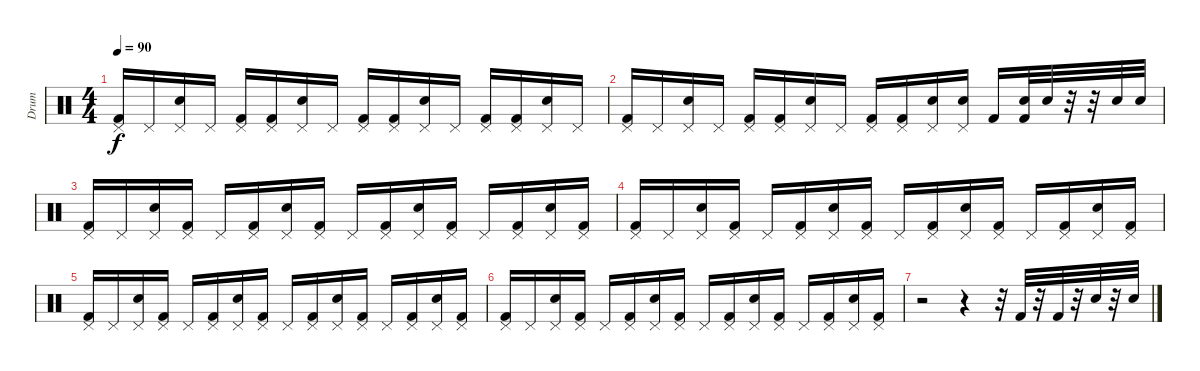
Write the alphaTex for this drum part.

\track ("Drum" "Drum") {instrument percussion}
\staff {score}
\articulation defaults
\ts (4 4)
\tempo 90
\clef neutral
\ks c
("Pedal Hi-Hat (hit)" "Kick (hit) 2").16{dy f} "Pedal Hi-Hat (hit)".16 ("Pedal Hi-Hat (hit)" "Snare (hit) 2").16 "Pedal Hi-Hat (hit)".16 ("Pedal Hi-Hat (hit)" "Kick (hit) 2").16 ("Pedal Hi-Hat (hit)" "Kick (hit) 2").16 ("Pedal Hi-Hat (hit)" "Snare (hit) 2").16 "Pedal Hi-Hat (hit)".16 ("Pedal Hi-Hat (hit)" "Kick (hit) 2").16 ("Pedal Hi-Hat (hit)" "Kick (hit) 2").16 ("Pedal Hi-Hat (hit)" "Snare (hit) 2").16 "Pedal Hi-Hat (hit)".16 ("Pedal Hi-Hat (hit)" "Kick (hit) 2").16 ("Pedal Hi-Hat (hit)" "Kick (hit) 2").16 ("Pedal Hi-Hat (hit)" "Snare (hit) 2").16 "Pedal Hi-Hat (hit)".16 |
("Pedal Hi-Hat (hit)" "Kick (hit) 2").16 "Pedal Hi-Hat (hit)".16 ("Pedal Hi-Hat (hit)" "Snare (hit) 2").16 "Pedal Hi-Hat (hit)".16 ("Pedal Hi-Hat (hit)" "Kick (hit) 2").16 ("Pedal Hi-Hat (hit)" "Kick (hit) 2").16 ("Pedal Hi-Hat (hit)" "Snare (hit) 2").16 "Pedal Hi-Hat (hit)".16 ("Pedal Hi-Hat (hit)" "Kick (hit) 2").16 ("Pedal Hi-Hat (hit)" "Kick (hit) 2").16 ("Pedal Hi-Hat (hit)" "Snare (hit) 2").16 ("Pedal Hi-Hat (hit)" "Snare (hit) 2").16 "Kick (hit) 2".16 ("Snare (hit) 2" "Kick (hit) 2").32 "Snare (hit) 2".32 r.32 r.32 "Snare (hit) 2".32 "Snare (hit) 2".32 |
("Pedal Hi-Hat (hit)" "Kick (hit) 2").16 "Pedal Hi-Hat (hit)".16 ("Pedal Hi-Hat (hit)" "Snare (hit) 2").16 ("Pedal Hi-Hat (hit)" "Kick (hit) 2").16 "Pedal Hi-Hat (hit)".16 ("Pedal Hi-Hat (hit)" "Kick (hit) 2").16 ("Pedal Hi-Hat (hit)" "Snare (hit) 2").16 ("Pedal Hi-Hat (hit)" "Kick (hit) 2").16 "Pedal Hi-Hat (hit)".16 ("Pedal Hi-Hat (hit)" "Kick (hit) 2").16 ("Pedal Hi-Hat (hit)" "Snare (hit) 2").16 ("Pedal Hi-Hat (hit)" "Kick (hit) 2").16 "Pedal Hi-Hat (hit)".16 ("Pedal Hi-Hat (hit)" "Kick (hit) 2").16 ("Pedal Hi-Hat (hit)" "Snare (hit) 2").16 ("Pedal Hi-Hat (hit)" "Kick (hit) 2").16 |
("Pedal Hi-Hat (hit)" "Kick (hit) 2").16 "Pedal Hi-Hat (hit)".16 ("Pedal Hi-Hat (hit)" "Snare (hit) 2").16 ("Pedal Hi-Hat (hit)" "Kick (hit) 2").16 "Pedal Hi-Hat (hit)".16 ("Pedal Hi-Hat (hit)" "Kick (hit) 2").16 ("Pedal Hi-Hat (hit)" "Snare (hit) 2").16 ("Pedal Hi-Hat (hit)" "Kick (hit) 2").16 "Pedal Hi-Hat (hit)".16 ("Pedal Hi-Hat (hit)" "Kick (hit) 2").16 ("Pedal Hi-Hat (hit)" "Snare (hit) 2").16 ("Pedal Hi-Hat (hit)" "Kick (hit) 2").16 "Pedal Hi-Hat (hit)".16 ("Pedal Hi-Hat (hit)" "Kick (hit) 2").16 ("Pedal Hi-Hat (hit)" "Snare (hit) 2").16 ("Pedal Hi-Hat (hit)" "Kick (hit) 2").16 |
("Pedal Hi-Hat (hit)" "Kick (hit) 2").16 "Pedal Hi-Hat (hit)".16 ("Pedal Hi-Hat (hit)" "Snare (hit) 2").16 ("Pedal Hi-Hat (hit)" "Kick (hit) 2").16 "Pedal Hi-Hat (hit)".16 ("Pedal Hi-Hat (hit)" "Kick (hit) 2").16 ("Pedal Hi-Hat (hit)" "Snare (hit) 2").16 ("Pedal Hi-Hat (hit)" "Kick (hit) 2").16 "Pedal Hi-Hat (hit)".16 ("Pedal Hi-Hat (hit)" "Kick (hit) 2").16 ("Pedal Hi-Hat (hit)" "Snare (hit) 2").16 ("Pedal Hi-Hat (hit)" "Kick (hit) 2").16 "Pedal Hi-Hat (hit)".16 ("Pedal Hi-Hat (hit)" "Kick (hit) 2").16 ("Pedal Hi-Hat (hit)" "Snare (hit) 2").16 ("Pedal Hi-Hat (hit)" "Kick (hit) 2").16 |
("Pedal Hi-Hat (hit)" "Kick (hit) 2").16 "Pedal Hi-Hat (hit)".16 ("Pedal Hi-Hat (hit)" "Snare (hit) 2").16 ("Pedal Hi-Hat (hit)" "Kick (hit) 2").16 "Pedal Hi-Hat (hit)".16 ("Pedal Hi-Hat (hit)" "Kick (hit) 2").16 ("Pedal Hi-Hat (hit)" "Snare (hit) 2").16 ("Pedal Hi-Hat (hit)" "Kick (hit) 2").16 "Pedal Hi-Hat (hit)".16 ("Pedal Hi-Hat (hit)" "Kick (hit) 2").16 ("Pedal Hi-Hat (hit)" "Snare (hit) 2").16 ("Pedal Hi-Hat (hit)" "Kick (hit) 2").16 "Pedal Hi-Hat (hit)".16 ("Pedal Hi-Hat (hit)" "Kick (hit) 2").16 ("Pedal Hi-Hat (hit)" "Snare (hit) 2").16 ("Pedal Hi-Hat (hit)" "Kick (hit) 2").16 |
r.2 r.4 r.32 "Kick (hit) 2".32 r.32 "Kick (hit) 2".32 r.32 "Snare (hit) 2".32 r.32 "Snare (hit) 2".32
